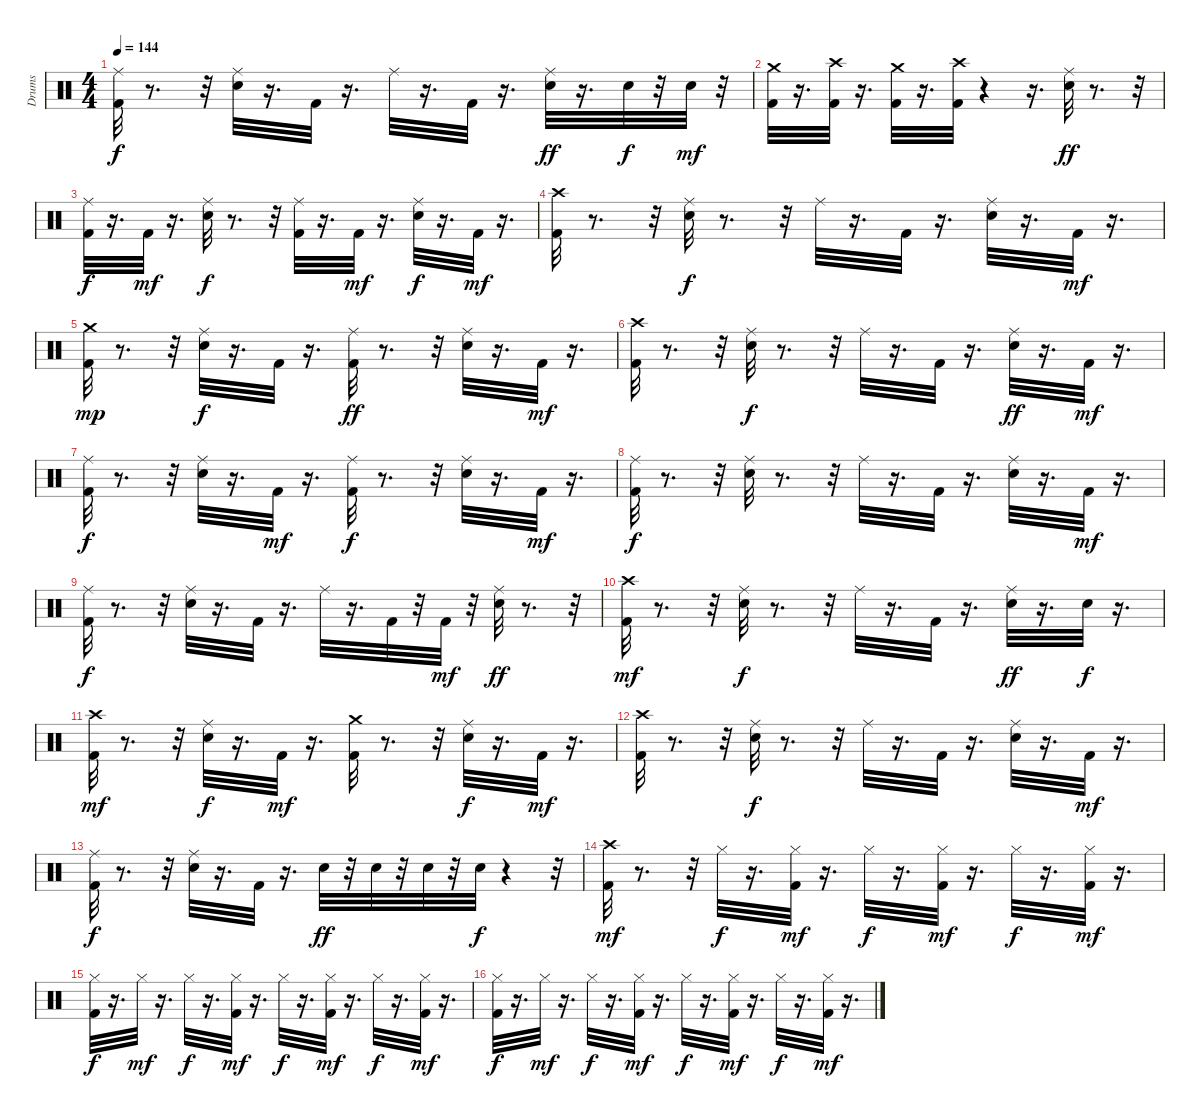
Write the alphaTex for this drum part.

\track ("Drums" "Drums") {instrument percussion}
\staff {score}
\articulation defaults
\ts (4 4)
\tempo 144
\clef neutral
\ks c
("Ride (middle)" "Kick (hit) 2").32{dy f} r.8{d} r.32 ("Ride (middle)" "Snare (hit) 2").32 r.16{d} "Kick (hit) 2".32 r.16{d} "Ride (middle)".32 r.16{d} "Kick (hit) 2".32 r.16{d} ("Ride (middle)" "Snare (hit) 2").32{dy ff} r.16{d} "Snare (hit) 2".32{dy f} r.32 "Snare (hit) 2".32{dy mf} r.32 |
("Crash medium (hit)" "Kick (hit) 2").32 r.16{d} ("Crash high (hit)" "Kick (hit) 2").32 r.16{d} ("Crash medium (hit)" "Kick (hit) 2").32 r.16{d} ("Crash high (hit)" "Kick (hit) 2").32 r.4 r.16{d} ("Ride (middle)" "Snare (hit) 2").32{dy ff} r.8{d} r.32 |
("Ride (middle)" "Kick (hit) 2").32{dy f} r.16{d} "Kick (hit) 2".32{dy mf} r.16{d} ("Ride (middle)" "Snare (hit) 2").32{dy f} r.8{d} r.32 ("Ride (middle)" "Kick (hit) 2").32 r.16{d} "Kick (hit) 2".32{dy mf} r.16{d} ("Ride (middle)" "Snare (hit) 2").32{dy f} r.16{d} "Kick (hit) 2".32{dy mf} r.16{d} |
("Crash high (hit)" "Kick (hit) 2").32 r.8{d} r.32 ("Ride (middle)" "Snare (hit) 2").32{dy f} r.8{d} r.32 "Ride (middle)".32 r.16{d} "Kick (hit) 2".32 r.16{d} ("Ride (middle)" "Snare (hit) 2").32 r.16{d} "Kick (hit) 2".32{dy mf} r.16{d} |
("Crash medium (hit)" "Kick (hit) 2").32{dy mp} r.8{d} r.32 ("Ride (middle)" "Snare (hit) 2").32{dy f} r.16{d} "Kick (hit) 2".32 r.16{d} ("Kick (hit) 2" "Ride (middle)").32{dy ff} r.8{d} r.32 ("Ride (middle)" "Snare (hit) 2").32 r.16{d} "Kick (hit) 2".32{dy mf} r.16{d} |
("Crash high (hit)" "Kick (hit) 2").32 r.8{d} r.32 ("Ride (middle)" "Snare (hit) 2").32{dy f} r.8{d} r.32 "Ride (middle)".32 r.16{d} "Kick (hit) 2".32 r.16{d} ("Ride (middle)" "Snare (hit) 2").32{dy ff} r.16{d} "Kick (hit) 2".32{dy mf} r.16{d} |
("Ride (middle)" "Kick (hit) 2").32{dy f} r.8{d} r.32 ("Ride (middle)" "Snare (hit) 2").32 r.16{d} "Kick (hit) 2".32{dy mf} r.16{d} ("Ride (middle)" "Kick (hit) 2").32{dy f} r.8{d} r.32 ("Ride (middle)" "Snare (hit) 2").32 r.16{d} "Kick (hit) 2".32{dy mf} r.16{d} |
("Ride (middle)" "Kick (hit) 2").32{dy f} r.8{d} r.32 ("Ride (middle)" "Snare (hit) 2").32 r.8{d} r.32 "Ride (middle)".32 r.16{d} "Kick (hit) 2".32 r.16{d} ("Ride (middle)" "Snare (hit) 2").32 r.16{d} "Kick (hit) 2".32{dy mf} r.16{d} |
("Ride (middle)" "Kick (hit) 2").32{dy f} r.8{d} r.32 ("Ride (middle)" "Snare (hit) 2").32 r.16{d} "Kick (hit) 2".32 r.16{d} "Ride (middle)".32 r.16{d} "Kick (hit) 2".32 r.32 "Kick (hit) 2".32{dy mf} r.32 ("Ride (middle)" "Snare (hit) 2").32{dy ff} r.8{d} r.32 |
("Crash high (hit)" "Kick (hit) 2").32{dy mf} r.8{d} r.32 ("Ride (middle)" "Snare (hit) 2").32{dy f} r.8{d} r.32 "Ride (middle)".32 r.16{d} "Kick (hit) 2".32 r.16{d} ("Ride (middle)" "Snare (hit) 2").32{dy ff} r.16{d} "Snare (hit) 2".32{dy f} r.16{d} |
("Crash high (hit)" "Kick (hit) 2").32{dy mf} r.8{d} r.32 ("Ride (middle)" "Snare (hit) 2").32{dy f} r.16{d} "Kick (hit) 2".32{dy mf} r.16{d} ("Crash medium (hit)" "Kick (hit) 2").32 r.8{d} r.32 ("Ride (middle)" "Snare (hit) 2").32{dy f} r.16{d} "Kick (hit) 2".32{dy mf} r.16{d} |
("Crash high (hit)" "Kick (hit) 2").32 r.8{d} r.32 ("Ride (middle)" "Snare (hit) 2").32{dy f} r.8{d} r.32 "Ride (middle)".32 r.16{d} "Kick (hit) 2".32 r.16{d} ("Ride (middle)" "Snare (hit) 2").32 r.16{d} "Kick (hit) 2".32{dy mf} r.16{d} |
("Ride (middle)" "Kick (hit) 2").32{dy f} r.8{d} r.32 ("Ride (middle)" "Snare (hit) 2").32 r.16{d} "Kick (hit) 2".32 r.16{d} "Snare (hit) 2".32{dy ff} r.32 "Snare (hit) 2".32 r.32 "Snare (hit) 2".32 r.32 "Snare (hit) 2".32{dy f} r.4 r.32 |
("Crash high (hit)" "Kick (hit) 2").32{dy mf} r.8{d} r.32 "Hi-Hat (closed)".32{dy f} r.16{d} ("Hi-Hat (closed)" "Kick (hit) 2").32{dy mf} r.16{d} "Hi-Hat (closed)".32{dy f} r.16{d} ("Hi-Hat (closed)" "Kick (hit) 2").32{dy mf} r.16{d} "Hi-Hat (closed)".32{dy f} r.16{d} ("Hi-Hat (closed)" "Kick (hit) 2").32{dy mf} r.16{d} |
("Hi-Hat (closed)" "Kick (hit) 2").32{dy f} r.16{d} "Hi-Hat (closed)".32{dy mf} r.16{d} "Hi-Hat (closed)".32{dy f} r.16{d} ("Hi-Hat (closed)" "Kick (hit) 2").32{dy mf} r.16{d} "Hi-Hat (closed)".32{dy f} r.16{d} ("Hi-Hat (closed)" "Kick (hit) 2").32{dy mf} r.16{d} "Hi-Hat (closed)".32{dy f} r.16{d} ("Hi-Hat (closed)" "Kick (hit) 2").32{dy mf} r.16{d} |
("Hi-Hat (closed)" "Kick (hit) 2").32{dy f} r.16{d} "Hi-Hat (closed)".32{dy mf} r.16{d} "Hi-Hat (closed)".32{dy f} r.16{d} ("Hi-Hat (closed)" "Kick (hit) 2").32{dy mf} r.16{d} "Hi-Hat (closed)".32{dy f} r.16{d} ("Kick (hit) 2" "Hi-Hat (closed)").32{dy mf} r.16{d} "Hi-Hat (closed)".32{dy f} r.16{d} ("Kick (hit) 2" "Hi-Hat (closed)").32{dy mf} r.16{d}
